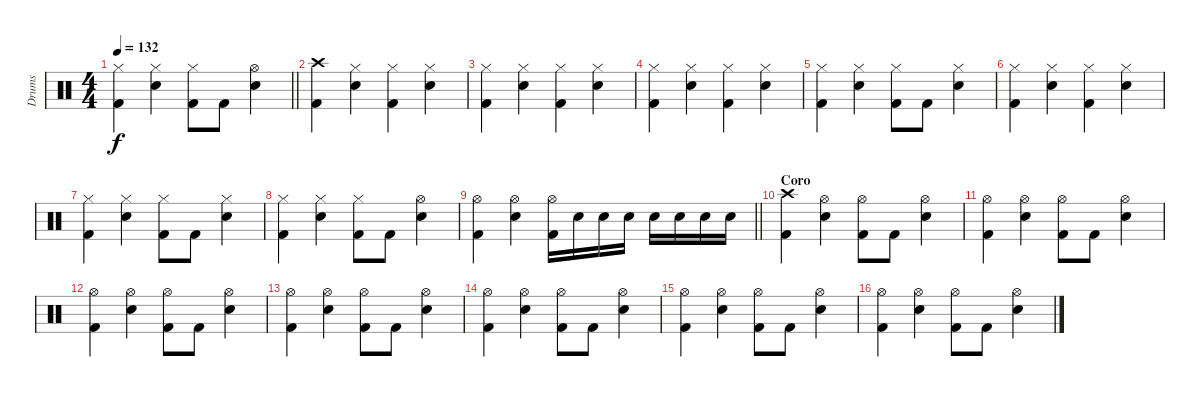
\track ("Drums" "Drums") {instrument percussion}
\staff {score}
\articulation defaults
\ts (4 4)
\tempo 132
\clef neutral
\barLineRight lightlight
\ks c
("Hi-Hat (closed)" "Kick (hit) 2").4{dy f} ("Hi-Hat (closed)" "Electric Snare (hit)").4 ("Hi-Hat (closed)" "Kick (hit) 2").8 "Kick (hit) 2".8 ("Hi-Hat (open)" "Electric Snare (hit)").4 |
("Crash high (hit)" "Kick (hit) 2").4 ("Hi-Hat (closed)" "Electric Snare (hit)").4 ("Hi-Hat (closed)" "Kick (hit) 2").4 ("Hi-Hat (closed)" "Electric Snare (hit)").4 |
("Hi-Hat (closed)" "Kick (hit) 2").4 ("Hi-Hat (closed)" "Electric Snare (hit)").4 ("Hi-Hat (closed)" "Kick (hit) 2").4 ("Hi-Hat (closed)" "Electric Snare (hit)").4 |
("Hi-Hat (closed)" "Kick (hit) 2").4 ("Hi-Hat (closed)" "Electric Snare (hit)").4 ("Hi-Hat (closed)" "Kick (hit) 2").4 ("Hi-Hat (closed)" "Electric Snare (hit)").4 |
("Hi-Hat (closed)" "Kick (hit) 2").4 ("Hi-Hat (closed)" "Electric Snare (hit)").4 ("Hi-Hat (closed)" "Kick (hit) 2").8 "Kick (hit) 2".8 ("Hi-Hat (closed)" "Electric Snare (hit)").4 |
("Hi-Hat (closed)" "Kick (hit) 2").4 ("Hi-Hat (closed)" "Electric Snare (hit)").4 ("Hi-Hat (closed)" "Kick (hit) 2").4 ("Hi-Hat (closed)" "Electric Snare (hit)").4 |
("Hi-Hat (closed)" "Kick (hit) 2").4 ("Hi-Hat (closed)" "Electric Snare (hit)").4 ("Hi-Hat (closed)" "Kick (hit) 2").8 "Kick (hit) 2".8 ("Hi-Hat (closed)" "Electric Snare (hit)").4 |
("Hi-Hat (closed)" "Kick (hit) 2").4 ("Hi-Hat (closed)" "Electric Snare (hit)").4 ("Hi-Hat (closed)" "Kick (hit) 2").8 "Kick (hit) 2".8 ("Hi-Hat (open)" "Electric Snare (hit)").4 |
\barLineRight lightlight
("Hi-Hat (open)" "Kick (hit) 2").4 ("Hi-Hat (open)" "Electric Snare (hit)").4 ("Hi-Hat (open)" "Kick (hit) 2").16 "Electric Snare (hit)".16 "Electric Snare (hit)".16 "Electric Snare (hit)".16 "Electric Snare (hit)".16 "Electric Snare (hit)".16 "Electric Snare (hit)".16 "Electric Snare (hit)".16 |
\section ("" "Coro")
("Crash high (hit)" "Kick (hit) 2").4 ("Hi-Hat (open)" "Electric Snare (hit)").4 ("Hi-Hat (open)" "Kick (hit) 2").8 "Kick (hit) 2".8 ("Hi-Hat (open)" "Electric Snare (hit)").4 |
("Hi-Hat (open)" "Kick (hit) 2").4 ("Hi-Hat (open)" "Electric Snare (hit)").4 ("Hi-Hat (open)" "Kick (hit) 2").8 "Kick (hit) 2".8 ("Hi-Hat (open)" "Electric Snare (hit)").4 |
("Hi-Hat (open)" "Kick (hit) 2").4 ("Hi-Hat (open)" "Electric Snare (hit)").4 ("Hi-Hat (open)" "Kick (hit) 2").8 "Kick (hit) 2".8 ("Hi-Hat (open)" "Electric Snare (hit)").4 |
("Hi-Hat (open)" "Kick (hit) 2").4 ("Hi-Hat (open)" "Electric Snare (hit)").4 ("Hi-Hat (open)" "Kick (hit) 2").8 "Kick (hit) 2".8 ("Hi-Hat (open)" "Electric Snare (hit)").4 |
("Hi-Hat (open)" "Kick (hit) 2").4 ("Hi-Hat (open)" "Electric Snare (hit)").4 ("Hi-Hat (open)" "Kick (hit) 2").8 "Kick (hit) 2".8 ("Hi-Hat (open)" "Electric Snare (hit)").4 |
("Hi-Hat (open)" "Kick (hit) 2").4 ("Hi-Hat (open)" "Electric Snare (hit)").4 ("Hi-Hat (open)" "Kick (hit) 2").8 "Kick (hit) 2".8 ("Hi-Hat (open)" "Electric Snare (hit)").4 |
("Hi-Hat (open)" "Kick (hit) 2").4 ("Hi-Hat (open)" "Electric Snare (hit)").4 ("Hi-Hat (open)" "Kick (hit) 2").8 "Kick (hit) 2".8 ("Hi-Hat (open)" "Electric Snare (hit)").4
